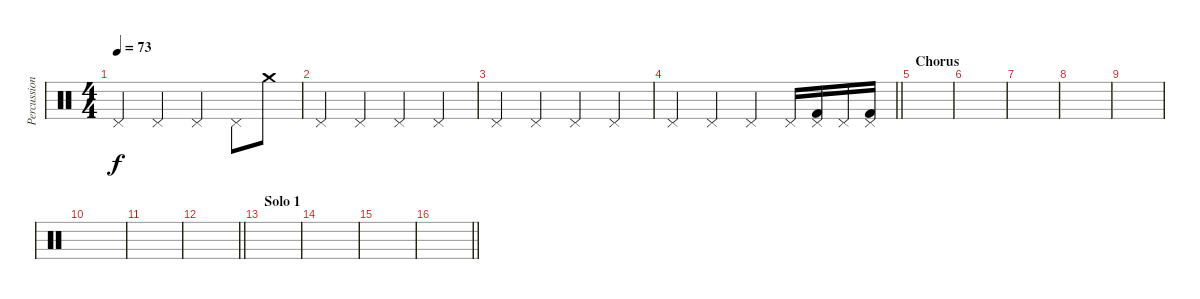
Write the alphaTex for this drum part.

\track ("Percussion" "Percussion") {instrument percussion}
\staff {score}
\articulation defaults
\ts (4 4)
\tempo 73
\clef neutral
\ks c "Pedal Hi-Hat (hit)".4{dy f} "Pedal Hi-Hat (hit)".4 "Pedal Hi-Hat (hit)".4 "Pedal Hi-Hat (hit)".8 "Crash medium (hit)".8
|
"Pedal Hi-Hat (hit)".4 "Pedal Hi-Hat (hit)".4 "Pedal Hi-Hat (hit)".4 "Pedal Hi-Hat (hit)".4 |
"Pedal Hi-Hat (hit)".4 "Pedal Hi-Hat (hit)".4 "Pedal Hi-Hat (hit)".4 "Pedal Hi-Hat (hit)".4 |
\barLineRight lightlight "Pedal Hi-Hat (hit)".4 "Pedal Hi-Hat (hit)".4 "Pedal Hi-Hat (hit)".4 "Pedal Hi-Hat (hit)".16
("Pedal Hi-Hat (hit)" "Kick (hit) 2").16 "Pedal Hi-Hat (hit)".16 ("Pedal Hi-Hat (hit)" "Kick (hit) 2").16 |
\section ("" "Chorus")
|
|
|
|
|
|
|
\barLineRight lightlight
|
\section ("" "Solo 1")
|
|
|
\barLineRight lightlight
